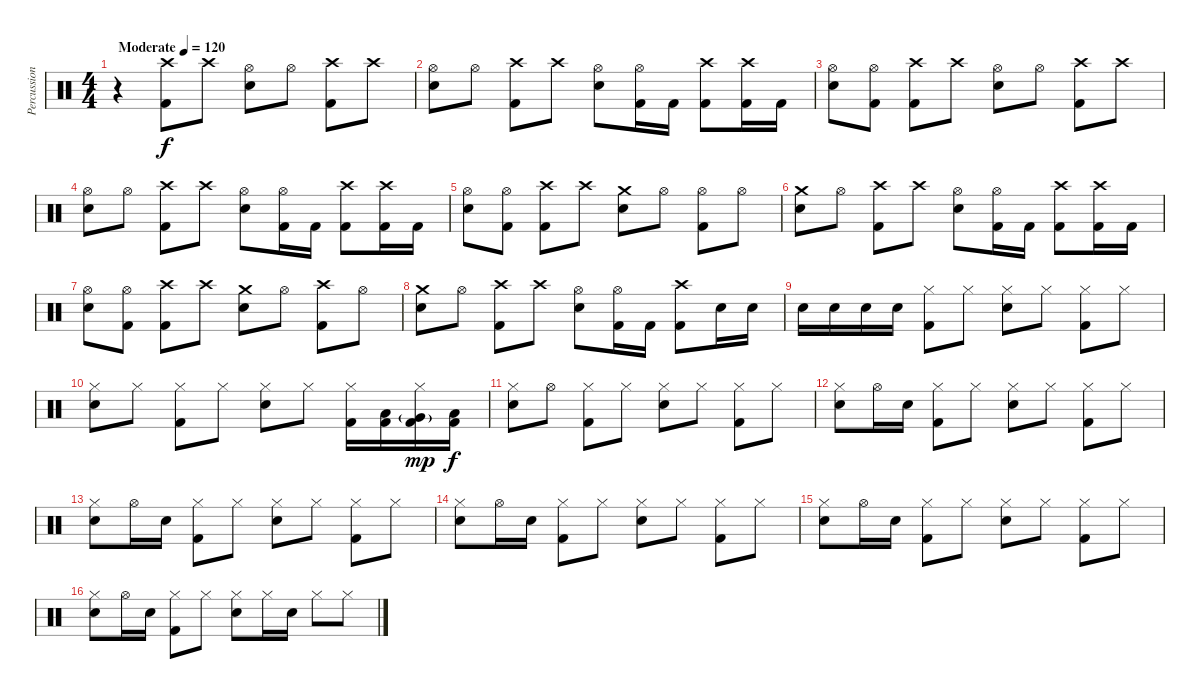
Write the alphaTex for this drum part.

\track ("Percussion" "Percussion") {instrument percussion}
\staff {score}
\articulation defaults
\ts (4 4)
\tempo (120 "Moderate")
\clef neutral
\ks c
r.4{dy f} ("Crash high (hit)" "Kick (hit) 2").8 "Crash high (hit)".8 ("Hi-Hat (open)" "Electric Snare (hit)").8 "Hi-Hat (open)".8 ("Crash high (hit)" "Kick (hit) 2").8 "Crash high (hit)".8 |
("Hi-Hat (open)" "Electric Snare (hit)").8 "Hi-Hat (open)".8 ("Crash high (hit)" "Kick (hit) 2").8 "Crash high (hit)".8 ("Hi-Hat (open)" "Electric Snare (hit)").8 ("Hi-Hat (open)" "Kick (hit) 2").16 "Kick (hit) 2".16 ("Crash high (hit)" "Kick (hit) 2").8 ("Crash high (hit)" "Kick (hit) 2").16 "Kick (hit) 2".16 |
("Hi-Hat (open)" "Electric Snare (hit)").8 ("Hi-Hat (open)" "Kick (hit) 2").8 ("Crash high (hit)" "Kick (hit) 2").8 "Crash high (hit)".8 ("Hi-Hat (open)" "Electric Snare (hit)").8 "Hi-Hat (open)".8 ("Crash high (hit)" "Kick (hit) 2").8 "Crash high (hit)".8 |
("Hi-Hat (open)" "Electric Snare (hit)").8 "Hi-Hat (open)".8 ("Crash high (hit)" "Kick (hit) 2").8 "Crash high (hit)".8 ("Hi-Hat (open)" "Electric Snare (hit)").8 ("Hi-Hat (open)" "Kick (hit) 2").16 "Kick (hit) 2".16 ("Crash high (hit)" "Kick (hit) 2").8 ("Crash high (hit)" "Kick (hit) 2").16 "Kick (hit) 2".16 |
("Hi-Hat (open)" "Electric Snare (hit)").8 ("Hi-Hat (open)" "Kick (hit) 2").8 ("Crash high (hit)" "Kick (hit) 2").8 "Crash high (hit)".8 ("Crash medium (hit)" "Electric Snare (hit)").8 "Hi-Hat (open)".8 ("Hi-Hat (open)" "Kick (hit) 2").8 "Hi-Hat (open)".8 |
("Crash medium (hit)" "Electric Snare (hit)").8 "Hi-Hat (open)".8 ("Crash high (hit)" "Kick (hit) 2").8 "Crash high (hit)".8 ("Hi-Hat (open)" "Electric Snare (hit)").8 ("Hi-Hat (open)" "Kick (hit) 2").16 "Kick (hit) 2".16 ("Crash high (hit)" "Kick (hit) 2").8 ("Crash high (hit)" "Kick (hit) 2").16 "Kick (hit) 2".16 |
("Hi-Hat (open)" "Electric Snare (hit)").8 ("Hi-Hat (open)" "Kick (hit) 2").8 ("Crash high (hit)" "Kick (hit) 2").8 "Crash high (hit)".8 ("Crash medium (hit)" "Electric Snare (hit)").8 "Hi-Hat (open)".8 ("Crash high (hit)" "Kick (hit) 2").8 "Hi-Hat (open)".8 |
("Crash medium (hit)" "Electric Snare (hit)").8 "Hi-Hat (open)".8 ("Crash high (hit)" "Kick (hit) 2").8 "Crash high (hit)".8 ("Hi-Hat (open)" "Electric Snare (hit)").8 ("Hi-Hat (open)" "Kick (hit) 2").16 "Kick (hit) 2".16 ("Crash high (hit)" "Kick (hit) 2").8 "Electric Snare (hit)".16 "Electric Snare (hit)".16 |
"Electric Snare (hit)".16 "Electric Snare (hit)".16 "Electric Snare (hit)".16 "Electric Snare (hit)".16 ("Hi-Hat (closed)" "Kick (hit) 2").8 "Hi-Hat (closed)".8 ("Hi-Hat (closed)" "Electric Snare (hit)").8 "Hi-Hat (closed)".8 ("Hi-Hat (closed)" "Kick (hit) 2").8 "Hi-Hat (closed)".8 |
("Hi-Hat (closed)" "Electric Snare (hit)").8 "Hi-Hat (closed)".8 ("Hi-Hat (closed)" "Kick (hit) 2").8 "Hi-Hat (closed)".8 ("Hi-Hat (closed)" "Electric Snare (hit)").8 "Hi-Hat (closed)".8 ("Hi-Hat (closed)" "Kick (hit) 2").16 ("Low Floor Tom (hit)" "Kick (hit) 2").16 ("Very Low Tom (hit)"{g} "Hi-Hat (closed)" "Kick (hit) 2").16{dy mp} ("Low Floor Tom (hit)" "Kick (hit) 2").16{dy f} |
("Hi-Hat (closed)" "Electric Snare (hit)").8 "Hi-Hat (open)".8 ("Hi-Hat (closed)" "Kick (hit) 2").8 "Hi-Hat (closed)".8 ("Hi-Hat (closed)" "Electric Snare (hit)").8 "Hi-Hat (closed)".8 ("Hi-Hat (closed)" "Kick (hit) 2").8 "Hi-Hat (closed)".8 |
("Hi-Hat (closed)" "Electric Snare (hit)").8 "Hi-Hat (open)".16 "Electric Snare (hit)".16 ("Hi-Hat (closed)" "Kick (hit) 2").8 "Hi-Hat (closed)".8 ("Hi-Hat (closed)" "Electric Snare (hit)").8 "Hi-Hat (closed)".8 ("Hi-Hat (closed)" "Kick (hit) 2").8 "Hi-Hat (closed)".8 |
("Hi-Hat (closed)" "Electric Snare (hit)").8 "Hi-Hat (open)".16 "Electric Snare (hit)".16 ("Hi-Hat (closed)" "Kick (hit) 2").8 "Hi-Hat (closed)".8 ("Hi-Hat (closed)" "Electric Snare (hit)").8 "Hi-Hat (closed)".8 ("Hi-Hat (closed)" "Kick (hit) 2").8 "Hi-Hat (closed)".8 |
("Hi-Hat (closed)" "Electric Snare (hit)").8 "Hi-Hat (open)".16 "Electric Snare (hit)".16 ("Hi-Hat (closed)" "Kick (hit) 2").8 "Hi-Hat (closed)".8 ("Hi-Hat (closed)" "Electric Snare (hit)").8 "Hi-Hat (closed)".8 ("Hi-Hat (closed)" "Kick (hit) 2").8 "Hi-Hat (closed)".8 |
("Hi-Hat (closed)" "Electric Snare (hit)").8 "Hi-Hat (open)".16 "Electric Snare (hit)".16 ("Hi-Hat (closed)" "Kick (hit) 2").8 "Hi-Hat (closed)".8 ("Hi-Hat (closed)" "Electric Snare (hit)").8 "Hi-Hat (closed)".8 ("Hi-Hat (closed)" "Kick (hit) 2").8 "Hi-Hat (closed)".8 |
("Hi-Hat (closed)" "Electric Snare (hit)").8 "Hi-Hat (open)".16 "Electric Snare (hit)".16 ("Hi-Hat (closed)" "Kick (hit) 2").8 "Hi-Hat (closed)".8 ("Hi-Hat (closed)" "Electric Snare (hit)").8 "Hi-Hat (closed)".16 "Electric Snare (hit)".16 "Hi-Hat (closed)".8 "Hi-Hat (closed)".8
